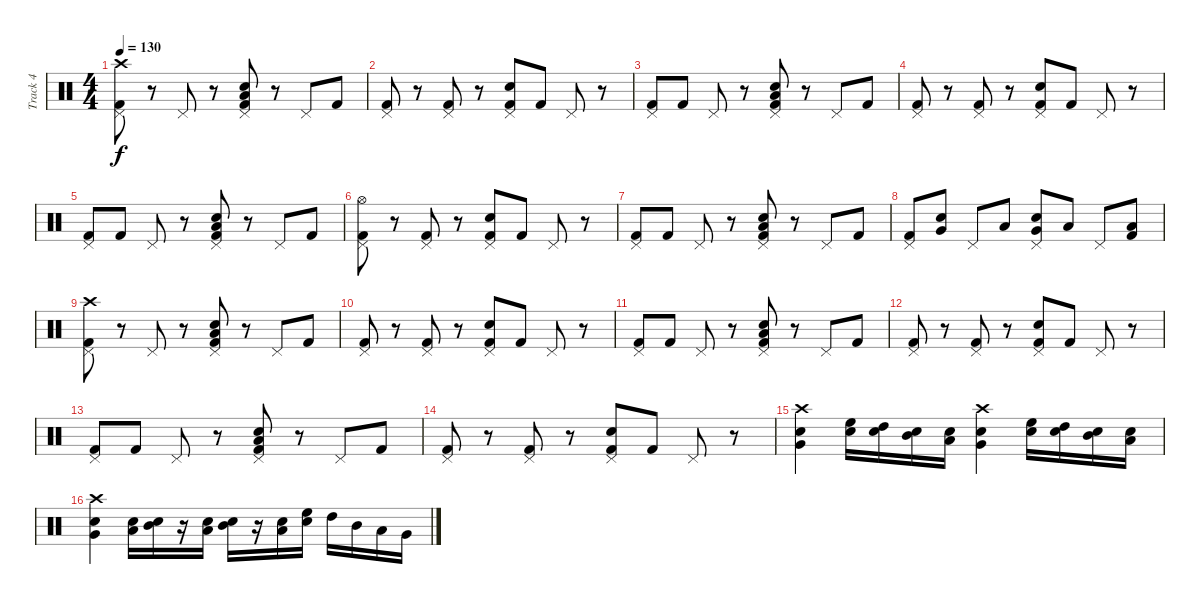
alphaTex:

\track ("Track 4" "Track 4") {instrument percussion}
\staff {score}
\articulation defaults
\ts (4 4)
\tempo 130
\clef neutral
\ks c
("Kick (hit) 2" "Pedal Hi-Hat (hit)" "Crash high (hit)").8{dy f} r.8 "Pedal Hi-Hat (hit)".8 r.8 ("Low Tom (hit)" "Snare (hit) 2" "Kick (hit) 2" "Pedal Hi-Hat (hit)").8 r.8 "Pedal Hi-Hat (hit)".8 "Kick (hit) 2".8 |
("Kick (hit) 2" "Pedal Hi-Hat (hit)").8 r.8 ("Pedal Hi-Hat (hit)" "Kick (hit) 2").8 r.8 ("Pedal Hi-Hat (hit)" "Kick (hit) 2" "Snare (hit) 2").8 "Kick (hit) 2".8 "Pedal Hi-Hat (hit)".8 r.8 |
("Kick (hit) 2" "Pedal Hi-Hat (hit)").8 "Kick (hit) 2".8 "Pedal Hi-Hat (hit)".8 r.8 ("Low Tom (hit)" "Snare (hit) 2" "Kick (hit) 2" "Pedal Hi-Hat (hit)").8 r.8 "Pedal Hi-Hat (hit)".8 "Kick (hit) 2".8 |
("Kick (hit) 2" "Pedal Hi-Hat (hit)").8 r.8 ("Pedal Hi-Hat (hit)" "Kick (hit) 2").8 r.8 ("Pedal Hi-Hat (hit)" "Kick (hit) 2" "Snare (hit) 2").8 "Kick (hit) 2".8 "Pedal Hi-Hat (hit)".8 r.8 |
("Kick (hit) 2" "Pedal Hi-Hat (hit)").8 "Kick (hit) 2".8 "Pedal Hi-Hat (hit)".8 r.8 ("Low Tom (hit)" "Snare (hit) 2" "Kick (hit) 2" "Pedal Hi-Hat (hit)").8 r.8 "Pedal Hi-Hat (hit)".8 "Kick (hit) 2".8 |
("Kick (hit) 2" "Pedal Hi-Hat (hit)" "Hi-Hat (open)").8 r.8 ("Pedal Hi-Hat (hit)" "Kick (hit) 2").8 r.8 ("Pedal Hi-Hat (hit)" "Kick (hit) 2" "Snare (hit) 2").8 "Kick (hit) 2".8 "Pedal Hi-Hat (hit)".8 r.8 |
("Kick (hit) 2" "Pedal Hi-Hat (hit)").8 "Kick (hit) 2".8 "Pedal Hi-Hat (hit)".8 r.8 ("Low Tom (hit)" "Snare (hit) 2" "Kick (hit) 2" "Pedal Hi-Hat (hit)").8 r.8 "Pedal Hi-Hat (hit)".8 "Kick (hit) 2".8 |
("Kick (hit) 2" "Pedal Hi-Hat (hit)").8 ("Snare (hit) 2" "Very Low Tom (hit)").8 "Pedal Hi-Hat (hit)".8 "Low Floor Tom (hit)".8 ("Snare (hit) 2" "Pedal Hi-Hat (hit)" "Very Low Tom (hit)").8 "Low Floor Tom (hit)".8 "Pedal Hi-Hat (hit)".8 ("Kick (hit) 2" "Low Floor Tom (hit)").8 |
("Kick (hit) 2" "Pedal Hi-Hat (hit)" "Crash high (hit)").8 r.8 "Pedal Hi-Hat (hit)".8 r.8 ("Low Tom (hit)" "Snare (hit) 2" "Kick (hit) 2" "Pedal Hi-Hat (hit)").8 r.8 "Pedal Hi-Hat (hit)".8 "Kick (hit) 2".8 |
("Kick (hit) 2" "Pedal Hi-Hat (hit)").8 r.8 ("Pedal Hi-Hat (hit)" "Kick (hit) 2").8 r.8 ("Pedal Hi-Hat (hit)" "Kick (hit) 2" "Snare (hit) 2").8 "Kick (hit) 2".8 "Pedal Hi-Hat (hit)".8 r.8 |
("Kick (hit) 2" "Pedal Hi-Hat (hit)").8 "Kick (hit) 2".8 "Pedal Hi-Hat (hit)".8 r.8 ("Low Tom (hit)" "Snare (hit) 2" "Kick (hit) 2" "Pedal Hi-Hat (hit)").8 r.8 "Pedal Hi-Hat (hit)".8 "Kick (hit) 2".8 |
("Kick (hit) 2" "Pedal Hi-Hat (hit)").8 r.8 ("Pedal Hi-Hat (hit)" "Kick (hit) 2").8 r.8 ("Pedal Hi-Hat (hit)" "Kick (hit) 2" "Snare (hit) 2").8 "Kick (hit) 2".8 "Pedal Hi-Hat (hit)".8 r.8 |
("Kick (hit) 2" "Pedal Hi-Hat (hit)").8 "Kick (hit) 2".8 "Pedal Hi-Hat (hit)".8 r.8 ("Low Tom (hit)" "Snare (hit) 2" "Kick (hit) 2" "Pedal Hi-Hat (hit)").8 r.8 "Pedal Hi-Hat (hit)".8 "Kick (hit) 2".8 |
("Kick (hit) 2" "Pedal Hi-Hat (hit)").8 r.8 ("Pedal Hi-Hat (hit)" "Kick (hit) 2").8 r.8 ("Pedal Hi-Hat (hit)" "Kick (hit) 2" "Snare (hit) 2").8 "Kick (hit) 2".8 "Pedal Hi-Hat (hit)".8 r.8 |
("Snare (hit) 2" "Very Low Tom (hit)" "Crash high (hit)").4 ("Electric Snare (hit)" "High Floor Tom (hit)").16 ("Electric Snare (hit)" "High Tom (hit)").16 ("Electric Snare (hit)" "Mid Tom (hit)").16 ("Electric Snare (hit)" "Low Tom (hit)").16 ("Snare (hit) 2" "Very Low Tom (hit)" "Crash high (hit)").4 ("Electric Snare (hit)" "High Floor Tom (hit)").16 ("Electric Snare (hit)" "High Tom (hit)").16 ("Electric Snare (hit)" "Mid Tom (hit)").16 ("Electric Snare (hit)" "Low Tom (hit)").16 |
("Snare (hit) 2" "Very Low Tom (hit)" "Crash high (hit)").4 ("Low Tom (hit)" "Electric Snare (hit)").16 ("Mid Tom (hit)" "Electric Snare (hit)").16 r.16 ("Low Tom (hit)" "Electric Snare (hit)").16 ("Mid Tom (hit)" "Electric Snare (hit)").16 r.16 ("Low Tom (hit)" "Electric Snare (hit)").16 ("High Floor Tom (hit)" "Electric Snare (hit)").16 "High Tom (hit)".16 "Mid Tom (hit)".16 "Low Tom (hit)".16 "Very Low Tom (hit)".16
